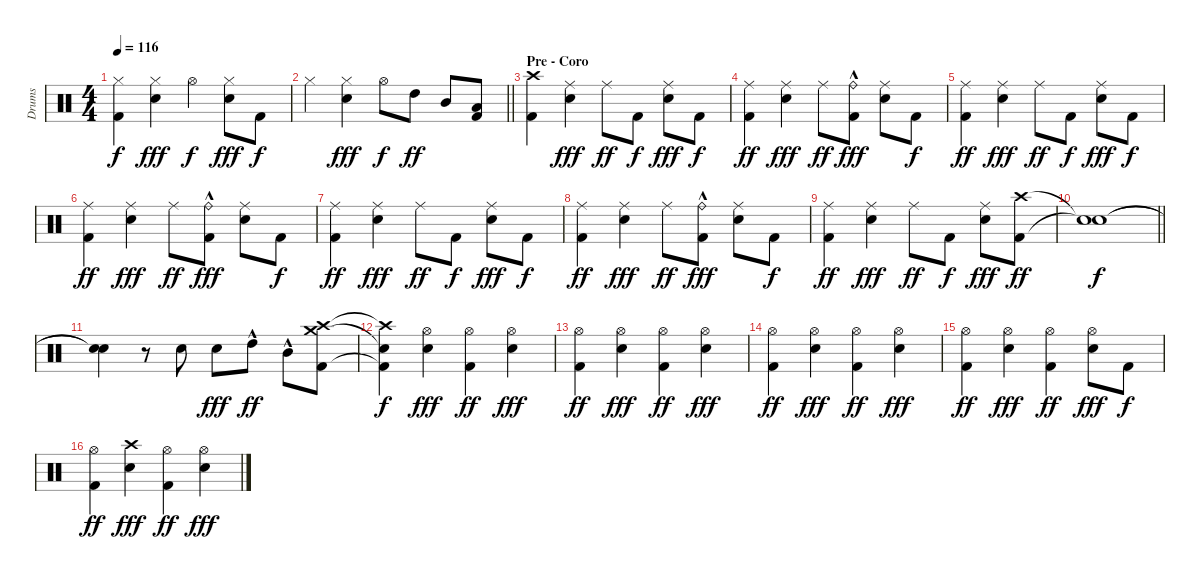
\track ("Drums" "Drums") {instrument percussion}
\staff {score}
\articulation defaults
\ts (4 4)
\tempo 116
\clef neutral
\ks c
("Hi-Hat (closed)" "Kick (hit) 2").4{dy f} ("Hi-Hat (closed)" "Snare (hit) 2").4{dy fff} "Hi-Hat (open)".4{dy f} ("Hi-Hat (closed)" "Snare (hit) 2").8{dy fff} "Kick (hit) 2".8{dy f} |
\barLineRight lightlight "Hi-Hat (closed)".4
("Hi-Hat (closed)" "Snare (hit) 2").4{dy fff} "Hi-Hat (open)".8{dy f} "High Tom (hit)".8{dy ff} "Mid Tom (hit)".8 ("Low Tom (hit)" "Kick (hit) 2").8 |
\section ("" "Pre - Coro")
("Crash high (hit)" "Kick (hit) 2").4 ("Ride (middle)" "Snare (hit) 2").4{dy fff} "Ride (middle)".8{dy ff} "Kick (hit) 2".8{dy f} ("Ride (middle)" "Snare (hit) 2").8{dy fff} "Kick (hit) 2".8{dy f} |
("Ride (middle)" "Kick (hit) 2").4{dy ff} ("Ride (middle)" "Snare (hit) 2").4{dy fff} "Ride (middle)".8{dy ff} ("Ride (bell)"{hac} "Kick (hit) 2").8{dy fff} ("Ride (middle)" "Snare (hit) 2").8 "Kick (hit) 2".8{dy f} |
("Ride (middle)" "Kick (hit) 2").4{dy ff} ("Ride (middle)" "Snare (hit) 2").4{dy fff} "Ride (middle)".8{dy ff} "Kick (hit) 2".8{dy f} ("Ride (middle)" "Snare (hit) 2").8{dy fff} "Kick (hit) 2".8{dy f} |
("Ride (middle)" "Kick (hit) 2").4{dy ff} ("Ride (middle)" "Snare (hit) 2").4{dy fff} "Ride (middle)".8{dy ff} ("Ride (bell)"{hac} "Kick (hit) 2").8{dy fff} ("Ride (middle)" "Snare (hit) 2").8 "Kick (hit) 2".8{dy f} |
("Ride (middle)" "Kick (hit) 2").4{dy ff} ("Ride (middle)" "Snare (hit) 2").4{dy fff} "Ride (middle)".8{dy ff} "Kick (hit) 2".8{dy f} ("Ride (middle)" "Snare (hit) 2").8{dy fff} "Kick (hit) 2".8{dy f} |
("Ride (middle)" "Kick (hit) 2").4{dy ff} ("Ride (middle)" "Snare (hit) 2").4{dy fff} "Ride (middle)".8{dy ff} ("Ride (bell)"{hac} "Kick (hit) 2").8{dy fff} ("Ride (middle)" "Snare (hit) 2").8 "Kick (hit) 2".8{dy f} |
("Ride (middle)" "Kick (hit) 2").4{dy ff} ("Ride (middle)" "Snare (hit) 2").4{dy fff} "Ride (middle)".8{dy ff} "Kick (hit) 2".8{dy f} ("Ride (middle)" "Snare (hit) 2").8{dy fff} ("Crash high (hit)" "Kick (hit) 2").8{dy ff} |
\barLineRight lightlight
("Snare (hit)"{t} "Snare (hit)"{t}).1{dy f} |
("Snare (hit)"{t} "Snare (hit)"{t}).4 r.8 "Snare (hit) 2".8 "Snare (hit) 2".8{dy fff} "High Tom (hit)"{hac}.8{dy ff} "Mid Tom (hit)"{hac}.8 ("Crash high (hit)" "Crash medium (hit)" "Kick (hit) 2").8 |
("Crash high (hit)"{t} "Snare (hit)"{t} "Kick (hit) 2"{t}).4{dy f} ("Hi-Hat (open)" "Snare (hit) 2").4{dy fff} ("Hi-Hat (open)" "Kick (hit) 2").4{dy ff} ("Hi-Hat (open)" "Snare (hit) 2").4{dy fff} |
("Hi-Hat (open)" "Kick (hit) 2").4{dy ff} ("Hi-Hat (open)" "Snare (hit) 2").4{dy fff} ("Hi-Hat (open)" "Kick (hit) 2").4{dy ff} ("Hi-Hat (open)" "Snare (hit) 2").4{dy fff} |
("Hi-Hat (open)" "Kick (hit) 2").4{dy ff} ("Hi-Hat (open)" "Snare (hit) 2").4{dy fff} ("Hi-Hat (open)" "Kick (hit) 2").4{dy ff} ("Hi-Hat (open)" "Snare (hit) 2").4{dy fff} |
("Hi-Hat (open)" "Kick (hit) 2").4{dy ff} ("Hi-Hat (open)" "Snare (hit) 2").4{dy fff} ("Hi-Hat (open)" "Kick (hit) 2").4{dy ff} ("Hi-Hat (open)" "Snare (hit) 2").8{dy fff} "Kick (hit) 2".8{dy f} |
("Hi-Hat (open)" "Kick (hit) 2").4{dy ff} ("Crash high (hit)" "Snare (hit) 2").4{dy fff} ("Hi-Hat (open)" "Kick (hit) 2").4{dy ff} ("Hi-Hat (open)" "Snare (hit) 2").4{dy fff}
